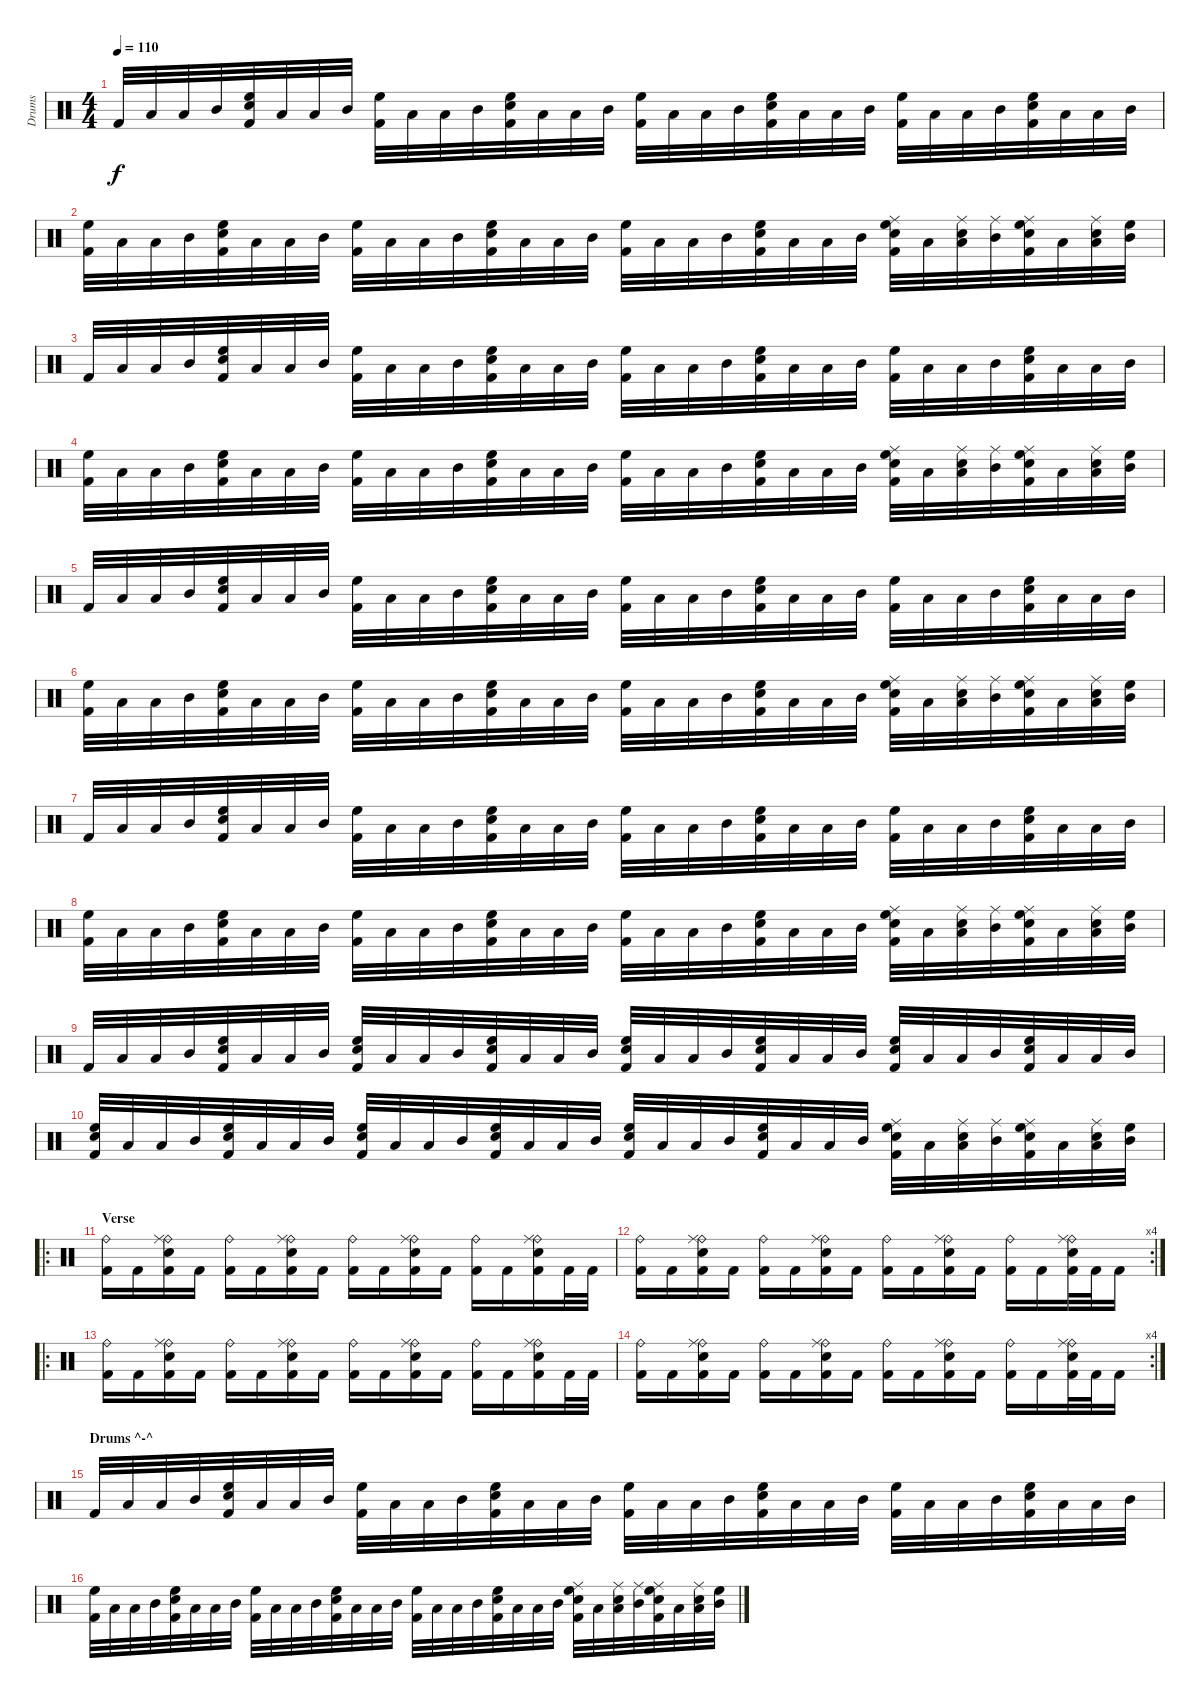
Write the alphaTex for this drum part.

\track ("Drums" "Drums") {instrument percussion}
\staff {score}
\articulation defaults
\ts (4 4)
\tempo 110
\clef neutral
\ks c "Kick (hit) 2".32{dy f} "Low Floor Tom (hit)".32 "Low Tom (hit)".32 "Mid Tom (hit)".32
("High Floor Tom (hit)" "Snare (hit) 2" "Kick (hit) 2").32 "Low Floor Tom (hit)".32 "Low Tom (hit)".32 "Mid Tom (hit)".32 ("High Floor Tom (hit)" "Kick (hit) 2").32 "Low Floor Tom (hit)".32 "Low Tom (hit)".32 "Mid Tom (hit)".32 ("High Floor Tom (hit)" "Snare (hit) 2" "Kick (hit) 2").32 "Low Floor Tom (hit)".32 "Low Tom (hit)".32 "Mid Tom (hit)".32 ("High Floor Tom (hit)" "Kick (hit) 2").32 "Low Floor Tom (hit)".32 "Low Tom (hit)".32 "Mid Tom (hit)".32 ("High Floor Tom (hit)" "Snare (hit) 2" "Kick (hit) 2").32 "Low Floor Tom (hit)".32 "Low Tom (hit)".32 "Mid Tom (hit)".32 ("High Floor Tom (hit)" "Kick (hit) 2").32 "Low Floor Tom (hit)".32 "Low Tom (hit)".32 "Mid Tom (hit)".32 ("High Floor Tom (hit)" "Snare (hit) 2" "Kick (hit) 2").32 "Low Floor Tom (hit)".32 "Low Tom (hit)".32 "Mid Tom (hit)".32 |
("High Floor Tom (hit)" "Kick (hit) 2").32 "Low Floor Tom (hit)".32 "Low Tom (hit)".32 "Mid Tom (hit)".32 ("High Floor Tom (hit)" "Snare (hit) 2" "Kick (hit) 2").32 "Low Floor Tom (hit)".32 "Low Tom (hit)".32 "Mid Tom (hit)".32 ("High Floor Tom (hit)" "Kick (hit) 2").32 "Low Floor Tom (hit)".32 "Low Tom (hit)".32 "Mid Tom (hit)".32 ("High Floor Tom (hit)" "Snare (hit) 2" "Kick (hit) 2").32 "Low Floor Tom (hit)".32 "Low Tom (hit)".32 "Mid Tom (hit)".32 ("High Floor Tom (hit)" "Kick (hit) 2").32 "Low Floor Tom (hit)".32 "Low Tom (hit)".32 "Mid Tom (hit)".32 ("High Floor Tom (hit)" "Snare (hit) 2" "Kick (hit) 2").32 "Low Floor Tom (hit)".32 "Low Tom (hit)".32 "Mid Tom (hit)".32 ("Ride (middle)" "High Floor Tom (hit)" "Snare (hit) 2" "Kick (hit) 2").32 "Low Floor Tom (hit)".32 ("Ride (middle)" "Snare (hit) 2" "Low Tom (hit)").32 ("Ride (middle)" "Mid Tom (hit)").32 ("Ride (middle)" "High Floor Tom (hit)" "Snare (hit) 2" "Kick (hit) 2").32 "Low Floor Tom (hit)".32 ("Ride (middle)" "Low Tom (hit)" "Snare (hit) 2").32 ("High Floor Tom (hit)" "Mid Tom (hit)").32 |
"Kick (hit) 2".32 "Low Floor Tom (hit)".32 "Low Tom (hit)".32 "Mid Tom (hit)".32 ("High Floor Tom (hit)" "Snare (hit) 2" "Kick (hit) 2").32 "Low Floor Tom (hit)".32 "Low Tom (hit)".32 "Mid Tom (hit)".32 ("High Floor Tom (hit)" "Kick (hit) 2").32 "Low Floor Tom (hit)".32 "Low Tom (hit)".32 "Mid Tom (hit)".32 ("High Floor Tom (hit)" "Snare (hit) 2" "Kick (hit) 2").32 "Low Floor Tom (hit)".32 "Low Tom (hit)".32 "Mid Tom (hit)".32 ("High Floor Tom (hit)" "Kick (hit) 2").32 "Low Floor Tom (hit)".32 "Low Tom (hit)".32 "Mid Tom (hit)".32 ("High Floor Tom (hit)" "Snare (hit) 2" "Kick (hit) 2").32 "Low Floor Tom (hit)".32 "Low Tom (hit)".32 "Mid Tom (hit)".32 ("High Floor Tom (hit)" "Kick (hit) 2").32 "Low Floor Tom (hit)".32 "Low Tom (hit)".32 "Mid Tom (hit)".32 ("High Floor Tom (hit)" "Snare (hit) 2" "Kick (hit) 2").32 "Low Floor Tom (hit)".32 "Low Tom (hit)".32 "Mid Tom (hit)".32 |
("High Floor Tom (hit)" "Kick (hit) 2").32 "Low Floor Tom (hit)".32 "Low Tom (hit)".32 "Mid Tom (hit)".32 ("High Floor Tom (hit)" "Snare (hit) 2" "Kick (hit) 2").32 "Low Floor Tom (hit)".32 "Low Tom (hit)".32 "Mid Tom (hit)".32 ("High Floor Tom (hit)" "Kick (hit) 2").32 "Low Floor Tom (hit)".32 "Low Tom (hit)".32 "Mid Tom (hit)".32 ("High Floor Tom (hit)" "Snare (hit) 2" "Kick (hit) 2").32 "Low Floor Tom (hit)".32 "Low Tom (hit)".32 "Mid Tom (hit)".32 ("High Floor Tom (hit)" "Kick (hit) 2").32 "Low Floor Tom (hit)".32 "Low Tom (hit)".32 "Mid Tom (hit)".32 ("High Floor Tom (hit)" "Snare (hit) 2" "Kick (hit) 2").32 "Low Floor Tom (hit)".32 "Low Tom (hit)".32 "Mid Tom (hit)".32 ("Ride (middle)" "High Floor Tom (hit)" "Snare (hit) 2" "Kick (hit) 2").32 "Low Floor Tom (hit)".32 ("Ride (middle)" "Snare (hit) 2" "Low Tom (hit)").32 ("Ride (middle)" "Mid Tom (hit)").32 ("Ride (middle)" "High Floor Tom (hit)" "Snare (hit) 2" "Kick (hit) 2").32 "Low Floor Tom (hit)".32 ("Ride (middle)" "Low Tom (hit)" "Snare (hit) 2").32 ("High Floor Tom (hit)" "Mid Tom (hit)").32 |
"Kick (hit) 2".32 "Low Floor Tom (hit)".32 "Low Tom (hit)".32 "Mid Tom (hit)".32 ("High Floor Tom (hit)" "Snare (hit) 2" "Kick (hit) 2").32 "Low Floor Tom (hit)".32 "Low Tom (hit)".32 "Mid Tom (hit)".32 ("High Floor Tom (hit)" "Kick (hit) 2").32 "Low Floor Tom (hit)".32 "Low Tom (hit)".32 "Mid Tom (hit)".32 ("High Floor Tom (hit)" "Snare (hit) 2" "Kick (hit) 2").32 "Low Floor Tom (hit)".32 "Low Tom (hit)".32 "Mid Tom (hit)".32 ("High Floor Tom (hit)" "Kick (hit) 2").32 "Low Floor Tom (hit)".32 "Low Tom (hit)".32 "Mid Tom (hit)".32 ("High Floor Tom (hit)" "Snare (hit) 2" "Kick (hit) 2").32 "Low Floor Tom (hit)".32 "Low Tom (hit)".32 "Mid Tom (hit)".32 ("High Floor Tom (hit)" "Kick (hit) 2").32 "Low Floor Tom (hit)".32 "Low Tom (hit)".32 "Mid Tom (hit)".32 ("High Floor Tom (hit)" "Snare (hit) 2" "Kick (hit) 2").32 "Low Floor Tom (hit)".32 "Low Tom (hit)".32 "Mid Tom (hit)".32 |
("High Floor Tom (hit)" "Kick (hit) 2").32 "Low Floor Tom (hit)".32 "Low Tom (hit)".32 "Mid Tom (hit)".32 ("High Floor Tom (hit)" "Snare (hit) 2" "Kick (hit) 2").32 "Low Floor Tom (hit)".32 "Low Tom (hit)".32 "Mid Tom (hit)".32 ("High Floor Tom (hit)" "Kick (hit) 2").32 "Low Floor Tom (hit)".32 "Low Tom (hit)".32 "Mid Tom (hit)".32 ("High Floor Tom (hit)" "Snare (hit) 2" "Kick (hit) 2").32 "Low Floor Tom (hit)".32 "Low Tom (hit)".32 "Mid Tom (hit)".32 ("High Floor Tom (hit)" "Kick (hit) 2").32 "Low Floor Tom (hit)".32 "Low Tom (hit)".32 "Mid Tom (hit)".32 ("High Floor Tom (hit)" "Snare (hit) 2" "Kick (hit) 2").32 "Low Floor Tom (hit)".32 "Low Tom (hit)".32 "Mid Tom (hit)".32 ("Ride (middle)" "High Floor Tom (hit)" "Snare (hit) 2" "Kick (hit) 2").32 "Low Floor Tom (hit)".32 ("Ride (middle)" "Snare (hit) 2" "Low Tom (hit)").32 ("Ride (middle)" "Mid Tom (hit)").32 ("Ride (middle)" "High Floor Tom (hit)" "Snare (hit) 2" "Kick (hit) 2").32 "Low Floor Tom (hit)".32 ("Ride (middle)" "Low Tom (hit)" "Snare (hit) 2").32 ("High Floor Tom (hit)" "Mid Tom (hit)").32 |
"Kick (hit) 2".32 "Low Floor Tom (hit)".32 "Low Tom (hit)".32 "Mid Tom (hit)".32 ("High Floor Tom (hit)" "Snare (hit) 2" "Kick (hit) 2").32 "Low Floor Tom (hit)".32 "Low Tom (hit)".32 "Mid Tom (hit)".32 ("High Floor Tom (hit)" "Kick (hit) 2").32 "Low Floor Tom (hit)".32 "Low Tom (hit)".32 "Mid Tom (hit)".32 ("High Floor Tom (hit)" "Snare (hit) 2" "Kick (hit) 2").32 "Low Floor Tom (hit)".32 "Low Tom (hit)".32 "Mid Tom (hit)".32 ("High Floor Tom (hit)" "Kick (hit) 2").32 "Low Floor Tom (hit)".32 "Low Tom (hit)".32 "Mid Tom (hit)".32 ("High Floor Tom (hit)" "Snare (hit) 2" "Kick (hit) 2").32 "Low Floor Tom (hit)".32 "Low Tom (hit)".32 "Mid Tom (hit)".32 ("High Floor Tom (hit)" "Kick (hit) 2").32 "Low Floor Tom (hit)".32 "Low Tom (hit)".32 "Mid Tom (hit)".32 ("High Floor Tom (hit)" "Snare (hit) 2" "Kick (hit) 2").32 "Low Floor Tom (hit)".32 "Low Tom (hit)".32 "Mid Tom (hit)".32 |
("High Floor Tom (hit)" "Kick (hit) 2").32 "Low Floor Tom (hit)".32 "Low Tom (hit)".32 "Mid Tom (hit)".32 ("High Floor Tom (hit)" "Snare (hit) 2" "Kick (hit) 2").32 "Low Floor Tom (hit)".32 "Low Tom (hit)".32 "Mid Tom (hit)".32 ("High Floor Tom (hit)" "Kick (hit) 2").32 "Low Floor Tom (hit)".32 "Low Tom (hit)".32 "Mid Tom (hit)".32 ("High Floor Tom (hit)" "Snare (hit) 2" "Kick (hit) 2").32 "Low Floor Tom (hit)".32 "Low Tom (hit)".32 "Mid Tom (hit)".32 ("High Floor Tom (hit)" "Kick (hit) 2").32 "Low Floor Tom (hit)".32 "Low Tom (hit)".32 "Mid Tom (hit)".32 ("High Floor Tom (hit)" "Snare (hit) 2" "Kick (hit) 2").32 "Low Floor Tom (hit)".32 "Low Tom (hit)".32 "Mid Tom (hit)".32 ("Ride (middle)" "High Floor Tom (hit)" "Snare (hit) 2" "Kick (hit) 2").32 "Low Floor Tom (hit)".32 ("Ride (middle)" "Snare (hit) 2" "Low Tom (hit)").32 ("Ride (middle)" "Mid Tom (hit)").32 ("Ride (middle)" "High Floor Tom (hit)" "Snare (hit) 2" "Kick (hit) 2").32 "Low Floor Tom (hit)".32 ("Ride (middle)" "Low Tom (hit)" "Snare (hit) 2").32 ("High Floor Tom (hit)" "Mid Tom (hit)").32 |
"Kick (hit) 2".32 "Low Floor Tom (hit)".32 "Low Tom (hit)".32 "Mid Tom (hit)".32 ("High Floor Tom (hit)" "Snare (hit) 2" "Kick (hit) 2").32 "Low Floor Tom (hit)".32 "Low Tom (hit)".32 "Mid Tom (hit)".32 ("High Floor Tom (hit)" "Snare (hit) 2" "Kick (hit) 2").32 "Low Floor Tom (hit)".32 "Low Tom (hit)".32 "Mid Tom (hit)".32 ("High Floor Tom (hit)" "Snare (hit) 2" "Kick (hit) 2").32 "Low Floor Tom (hit)".32 "Low Tom (hit)".32 "Mid Tom (hit)".32 ("High Floor Tom (hit)" "Snare (hit) 2" "Kick (hit) 2").32 "Low Floor Tom (hit)".32 "Low Tom (hit)".32 "Mid Tom (hit)".32 ("High Floor Tom (hit)" "Snare (hit) 2" "Kick (hit) 2").32 "Low Floor Tom (hit)".32 "Low Tom (hit)".32 "Mid Tom (hit)".32 ("High Floor Tom (hit)" "Snare (hit) 2" "Kick (hit) 2").32 "Low Floor Tom (hit)".32 "Low Tom (hit)".32 "Mid Tom (hit)".32 ("High Floor Tom (hit)" "Snare (hit) 2" "Kick (hit) 2").32 "Low Floor Tom (hit)".32 "Low Tom (hit)".32 "Mid Tom (hit)".32 |
("High Floor Tom (hit)" "Snare (hit) 2" "Kick (hit) 2").32 "Low Floor Tom (hit)".32 "Low Tom (hit)".32 "Mid Tom (hit)".32 ("High Floor Tom (hit)" "Snare (hit) 2" "Kick (hit) 2").32 "Low Floor Tom (hit)".32 "Low Tom (hit)".32 "Mid Tom (hit)".32 ("High Floor Tom (hit)" "Snare (hit) 2" "Kick (hit) 2").32 "Low Floor Tom (hit)".32 "Low Tom (hit)".32 "Mid Tom (hit)".32 ("High Floor Tom (hit)" "Snare (hit) 2" "Kick (hit) 2").32 "Low Floor Tom (hit)".32 "Low Tom (hit)".32 "Mid Tom (hit)".32 ("High Floor Tom (hit)" "Snare (hit) 2" "Kick (hit) 2").32 "Low Floor Tom (hit)".32 "Low Tom (hit)".32 "Mid Tom (hit)".32 ("High Floor Tom (hit)" "Snare (hit) 2" "Kick (hit) 2").32 "Low Floor Tom (hit)".32 "Low Tom (hit)".32 "Mid Tom (hit)".32 ("Ride (middle)" "High Floor Tom (hit)" "Snare (hit) 2" "Kick (hit) 2").32 "Low Floor Tom (hit)".32 ("Ride (middle)" "Snare (hit) 2" "Low Tom (hit)").32 ("Ride (middle)" "Mid Tom (hit)").32 ("Ride (middle)" "High Floor Tom (hit)" "Snare (hit) 2" "Kick (hit) 2").32 "Low Floor Tom (hit)".32 ("Ride (middle)" "Low Tom (hit)" "Snare (hit) 2").32 ("High Floor Tom (hit)" "Mid Tom (hit)").32 |
\ro
\section ("" "Verse")
("Ride (bell)" "Kick (hit) 2").16 "Kick (hit) 2".16 ("Ride (bell)" "Ride (middle)" "Snare (hit) 2" "Kick (hit) 2").16 "Kick (hit) 2".16 ("Ride (bell)" "Kick (hit) 2").16 "Kick (hit) 2".16 ("Ride (bell)" "Ride (middle)" "Snare (hit) 2" "Kick (hit) 2").16 "Kick (hit) 2".16 ("Ride (bell)" "Kick (hit) 2").16 "Kick (hit) 2".16 ("Ride (bell)" "Ride (middle)" "Snare (hit) 2" "Kick (hit) 2").16 "Kick (hit) 2".16 ("Ride (bell)" "Kick (hit) 2").16 "Kick (hit) 2".16 ("Ride (bell)" "Ride (middle)" "Snare (hit) 2" "Kick (hit) 2").16 "Kick (hit) 2".32 "Kick (hit) 2".32 |
\rc 4
("Ride (bell)" "Kick (hit) 2").16 "Kick (hit) 2".16 ("Ride (bell)" "Ride (middle)" "Snare (hit) 2" "Kick (hit) 2").16 "Kick (hit) 2".16 ("Ride (bell)" "Kick (hit) 2").16 "Kick (hit) 2".16 ("Ride (bell)" "Ride (middle)" "Snare (hit) 2" "Kick (hit) 2").16 "Kick (hit) 2".16 ("Ride (bell)" "Kick (hit) 2").16 "Kick (hit) 2".16 ("Ride (bell)" "Ride (middle)" "Snare (hit) 2" "Kick (hit) 2").16 "Kick (hit) 2".16 ("Ride (bell)" "Kick (hit) 2").16 "Kick (hit) 2".16 ("Ride (bell)" "Ride (middle)" "Snare (hit) 2" "Kick (hit) 2").32 "Kick (hit) 2".32 "Kick (hit) 2".16 |
\ro
("Ride (bell)" "Kick (hit) 2").16 "Kick (hit) 2".16 ("Ride (bell)" "Ride (middle)" "Snare (hit) 2" "Kick (hit) 2").16 "Kick (hit) 2".16 ("Ride (bell)" "Kick (hit) 2").16 "Kick (hit) 2".16 ("Ride (bell)" "Ride (middle)" "Snare (hit) 2" "Kick (hit) 2").16 "Kick (hit) 2".16 ("Ride (bell)" "Kick (hit) 2").16 "Kick (hit) 2".16 ("Ride (bell)" "Ride (middle)" "Snare (hit) 2" "Kick (hit) 2").16 "Kick (hit) 2".16 ("Ride (bell)" "Kick (hit) 2").16 "Kick (hit) 2".16 ("Ride (bell)" "Ride (middle)" "Snare (hit) 2" "Kick (hit) 2").16 "Kick (hit) 2".32 "Kick (hit) 2".32 |
\rc 4
("Ride (bell)" "Kick (hit) 2").16 "Kick (hit) 2".16 ("Ride (bell)" "Ride (middle)" "Snare (hit) 2" "Kick (hit) 2").16 "Kick (hit) 2".16 ("Ride (bell)" "Kick (hit) 2").16 "Kick (hit) 2".16 ("Ride (bell)" "Ride (middle)" "Snare (hit) 2" "Kick (hit) 2").16 "Kick (hit) 2".16 ("Ride (bell)" "Kick (hit) 2").16 "Kick (hit) 2".16 ("Ride (bell)" "Ride (middle)" "Snare (hit) 2" "Kick (hit) 2").16 "Kick (hit) 2".16 ("Ride (bell)" "Kick (hit) 2").16 "Kick (hit) 2".16 ("Ride (bell)" "Ride (middle)" "Snare (hit) 2" "Kick (hit) 2").32 "Kick (hit) 2".32 "Kick (hit) 2".16 |
\section ("" "Drums ^-^")
"Kick (hit) 2".32 "Low Floor Tom (hit)".32 "Low Tom (hit)".32 "Mid Tom (hit)".32 ("High Floor Tom (hit)" "Snare (hit) 2" "Kick (hit) 2").32 "Low Floor Tom (hit)".32 "Low Tom (hit)".32 "Mid Tom (hit)".32 ("High Floor Tom (hit)" "Kick (hit) 2").32 "Low Floor Tom (hit)".32 "Low Tom (hit)".32 "Mid Tom (hit)".32 ("High Floor Tom (hit)" "Snare (hit) 2" "Kick (hit) 2").32 "Low Floor Tom (hit)".32 "Low Tom (hit)".32 "Mid Tom (hit)".32 ("High Floor Tom (hit)" "Kick (hit) 2").32 "Low Floor Tom (hit)".32 "Low Tom (hit)".32 "Mid Tom (hit)".32 ("High Floor Tom (hit)" "Snare (hit) 2" "Kick (hit) 2").32 "Low Floor Tom (hit)".32 "Low Tom (hit)".32 "Mid Tom (hit)".32 ("High Floor Tom (hit)" "Kick (hit) 2").32 "Low Floor Tom (hit)".32 "Low Tom (hit)".32 "Mid Tom (hit)".32 ("High Floor Tom (hit)" "Snare (hit) 2" "Kick (hit) 2").32 "Low Floor Tom (hit)".32 "Low Tom (hit)".32 "Mid Tom (hit)".32 |
("High Floor Tom (hit)" "Kick (hit) 2").32 "Low Floor Tom (hit)".32 "Low Tom (hit)".32 "Mid Tom (hit)".32 ("High Floor Tom (hit)" "Snare (hit) 2" "Kick (hit) 2").32 "Low Floor Tom (hit)".32 "Low Tom (hit)".32 "Mid Tom (hit)".32 ("High Floor Tom (hit)" "Kick (hit) 2").32 "Low Floor Tom (hit)".32 "Low Tom (hit)".32 "Mid Tom (hit)".32 ("High Floor Tom (hit)" "Snare (hit) 2" "Kick (hit) 2").32 "Low Floor Tom (hit)".32 "Low Tom (hit)".32 "Mid Tom (hit)".32 ("High Floor Tom (hit)" "Kick (hit) 2").32 "Low Floor Tom (hit)".32 "Low Tom (hit)".32 "Mid Tom (hit)".32 ("High Floor Tom (hit)" "Snare (hit) 2" "Kick (hit) 2").32 "Low Floor Tom (hit)".32 "Low Tom (hit)".32 "Mid Tom (hit)".32 ("Ride (middle)" "High Floor Tom (hit)" "Snare (hit) 2" "Kick (hit) 2").32 "Low Floor Tom (hit)".32 ("Ride (middle)" "Snare (hit) 2" "Low Tom (hit)").32 ("Ride (middle)" "Mid Tom (hit)").32 ("Ride (middle)" "High Floor Tom (hit)" "Snare (hit) 2" "Kick (hit) 2").32 "Low Floor Tom (hit)".32 ("Ride (middle)" "Low Tom (hit)" "Snare (hit) 2").32 ("High Floor Tom (hit)" "Mid Tom (hit)").32
